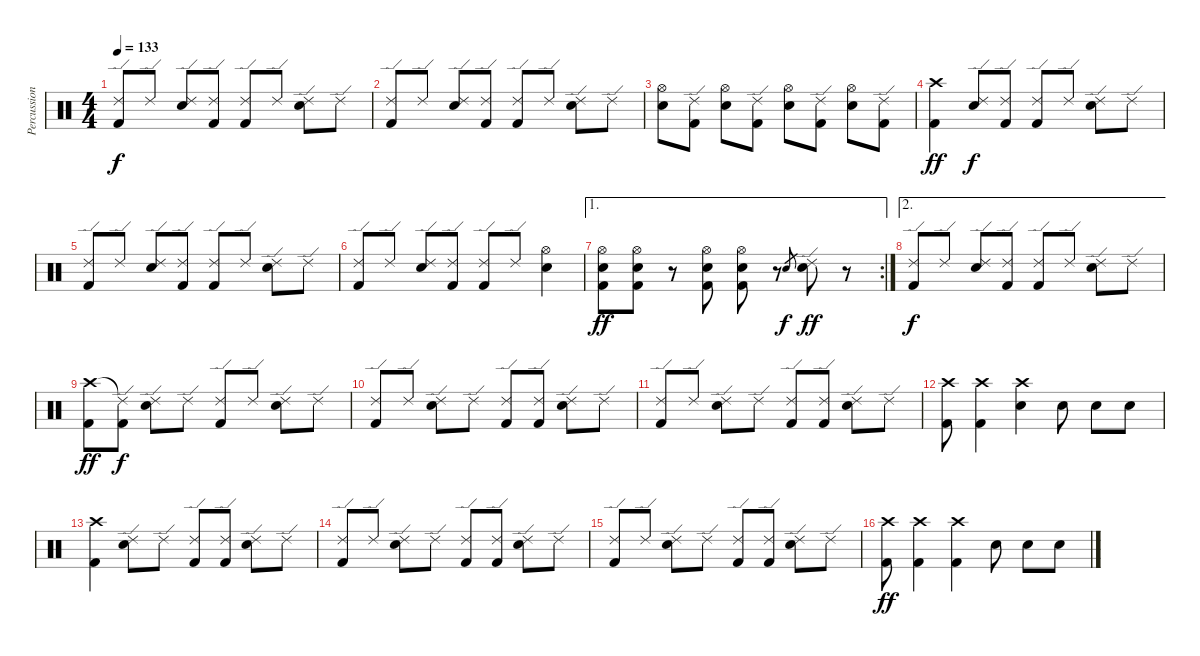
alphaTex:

\track ("Percussion" "Percussion") {instrument percussion}
\staff {score}
\articulation defaults
\ts (4 4)
\tempo 133
\clef neutral
\ks c
("Ride (edge) 2" "Kick (hit) 2").8{dy f} "Ride (edge) 2".8 ("Ride (edge) 2" "Snare (hit) 2").8 ("Ride (edge) 2" "Kick (hit) 2").8 ("Ride (edge) 2" "Kick (hit) 2").8 "Ride (edge) 2".8 ("Ride (edge) 2" "Snare (hit) 2").8 "Ride (edge) 2".8 |
("Ride (edge) 2" "Kick (hit) 2").8 "Ride (edge) 2".8 ("Ride (edge) 2" "Snare (hit) 2").8 ("Ride (edge) 2" "Kick (hit) 2").8 ("Ride (edge) 2" "Kick (hit) 2").8 "Ride (edge) 2".8 ("Ride (edge) 2" "Snare (hit) 2").8 "Ride (edge) 2".8 |
("Hi-Hat (open)" "Snare (hit) 2").8 ("Ride (edge) 2" "Kick (hit) 2").8 ("Hi-Hat (open)" "Snare (hit) 2").8 ("Ride (edge) 2" "Kick (hit) 2").8 ("Hi-Hat (open)" "Snare (hit) 2").8 ("Ride (edge) 2" "Kick (hit) 2").8 ("Hi-Hat (open)" "Snare (hit) 2").8 ("Ride (edge) 2" "Kick (hit) 2").8 |
("Crash high (hit)" "Kick (hit) 2").4{dy ff} ("Ride (edge) 2" "Snare (hit) 2").8{dy f} ("Ride (edge) 2" "Kick (hit) 2").8 ("Ride (edge) 2" "Kick (hit) 2").8 "Ride (edge) 2".8 ("Ride (edge) 2" "Snare (hit) 2").8 "Ride (edge) 2".8 |
("Ride (edge) 2" "Kick (hit) 2").8 "Ride (edge) 2".8 ("Ride (edge) 2" "Snare (hit) 2").8 ("Ride (edge) 2" "Kick (hit) 2").8 ("Ride (edge) 2" "Kick (hit) 2").8 "Ride (edge) 2".8 ("Ride (edge) 2" "Snare (hit) 2").8 "Ride (edge) 2".8 |
("Ride (edge) 2" "Kick (hit) 2").8 "Ride (edge) 2".8 ("Ride (edge) 2" "Snare (hit) 2").8 ("Ride (edge) 2" "Kick (hit) 2").8 ("Ride (edge) 2" "Kick (hit) 2").8 "Ride (edge) 2".8 ("Hi-Hat (open)" "Electric Snare (hit)").4 |
\ae 1
\rc 2
("Hi-Hat (open)" "Snare (hit) 2" "Kick (hit) 2").8{dy ff} ("Hi-Hat (open)" "Snare (hit) 2" "Kick (hit) 2").8 r.8 ("Hi-Hat (open)" "Snare (hit) 2" "Kick (hit) 2").8 ("Hi-Hat (open)" "Snare (hit) 2" "Kick (hit) 2").8 r.8 "Electric Snare (hit)".8{gr dy f} ("Ride (edge) 2" "Electric Snare (hit)").8{dy ff} r.8 |
\ae 2
("Ride (edge) 2" "Kick (hit) 2").8{dy f} "Ride (edge) 2".8 ("Ride (edge) 2" "Snare (hit) 2").8 ("Ride (edge) 2" "Kick (hit) 2").8 ("Ride (edge) 2" "Kick (hit) 2").8 "Ride (edge) 2".8 ("Ride (edge) 2" "Snare (hit) 2").8 "Ride (edge) 2".8 |
("Crash high (hit)" "Kick (hit) 2").8{dy ff} ("Ride (edge) 2"{t} "Kick (hit) 2").8{dy f} ("Ride (edge) 2" "Snare (hit) 2").8 "Ride (edge) 2".8 ("Ride (edge) 2" "Kick (hit) 2").8 "Ride (edge) 2".8 ("Ride (edge) 2" "Snare (hit) 2").8 "Ride (edge) 2".8 |
("Ride (edge) 2" "Kick (hit) 2").8 "Ride (edge) 2".8 ("Ride (edge) 2" "Snare (hit) 2").8 "Ride (edge) 2".8 ("Ride (edge) 2" "Kick (hit) 2").8 ("Ride (edge) 2" "Kick (hit) 2").8 ("Ride (edge) 2" "Snare (hit) 2").8 "Ride (edge) 2".8 |
("Ride (edge) 2" "Kick (hit) 2").8 "Ride (edge) 2".8 ("Ride (edge) 2" "Snare (hit) 2").8 "Ride (edge) 2".8 ("Ride (edge) 2" "Kick (hit) 2").8 ("Ride (edge) 2" "Kick (hit) 2").8 ("Ride (edge) 2" "Snare (hit) 2").8 "Ride (edge) 2".8 |
("Crash high (hit)" "Kick (hit) 2").8 ("Crash high (hit)" "Kick (hit) 2").4 ("Crash high (hit)" "Snare (hit) 2").4 "Electric Snare (hit)".8 "Electric Snare (hit)".8 "Electric Snare (hit)".8 |
("Crash high (hit)" "Kick (hit) 2").4 ("Ride (edge) 2" "Snare (hit) 2").8 "Ride (edge) 2".8 ("Ride (edge) 2" "Kick (hit) 2").8 ("Ride (edge) 2" "Kick (hit) 2").8 ("Ride (edge) 2" "Snare (hit) 2").8 "Ride (edge) 2".8 |
("Ride (edge) 2" "Kick (hit) 2").8 "Ride (edge) 2".8 ("Ride (edge) 2" "Snare (hit) 2").8 "Ride (edge) 2".8 ("Ride (edge) 2" "Kick (hit) 2").8 ("Ride (edge) 2" "Kick (hit) 2").8 ("Ride (edge) 2" "Snare (hit) 2").8 "Ride (edge) 2".8 |
("Ride (edge) 2" "Kick (hit) 2").8 "Ride (edge) 2".8 ("Ride (edge) 2" "Snare (hit) 2").8 "Ride (edge) 2".8 ("Ride (edge) 2" "Kick (hit) 2").8 ("Ride (edge) 2" "Kick (hit) 2").8 ("Ride (edge) 2" "Snare (hit) 2").8 "Ride (edge) 2".8 |
("Crash high (hit)" "Kick (hit) 2").8{dy ff} ("Crash high (hit)" "Kick (hit) 2").4 ("Crash high (hit)" "Kick (hit) 2").4 "Snare (hit) 2".8 "Snare (hit) 2".8 "Snare (hit) 2".8
